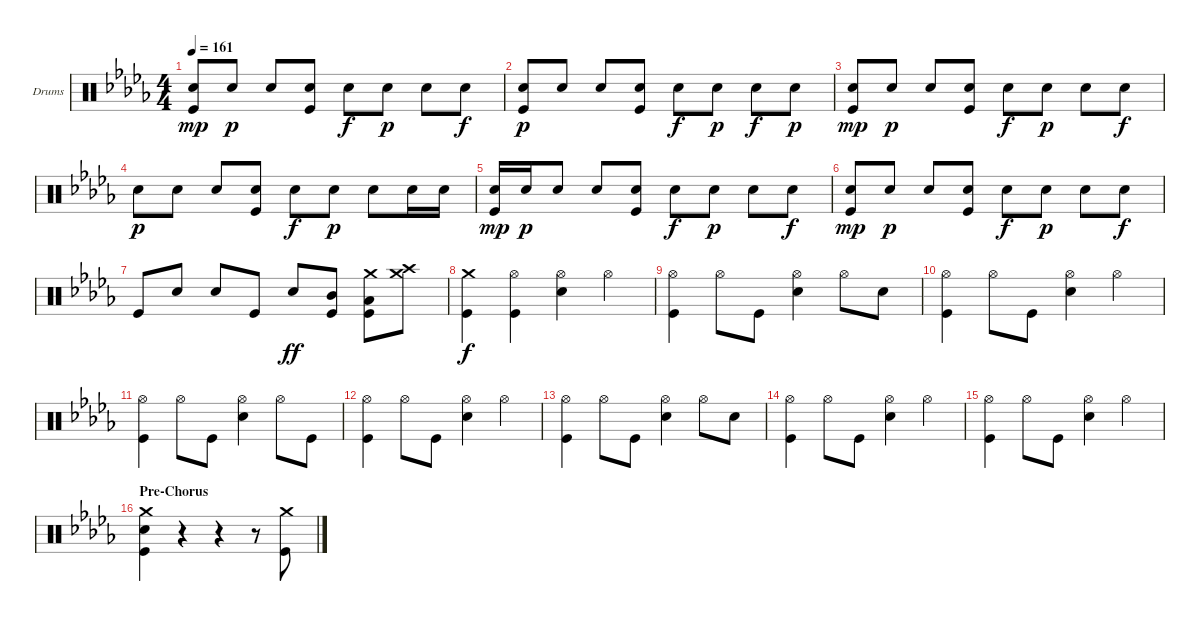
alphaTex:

\bracketExtendMode groupsimilarinstruments
\firstSystemTrackNameOrientation horizontal
\otherSystemsTrackNameOrientation horizontal
\track ("Drumkit" "Drums") {instrument percussion}
\staff {score}
\articulation defaults
\ts (4 4)
\tempo 161
\clef neutral
\ks db
("Snare (hit) 2" "Kick (hit)").8{dy mp} "Snare (hit) 2".8{dy p} "Snare (hit) 2".8 ("Snare (hit) 2" "Kick (hit)").8 "Snare (hit) 2".8{dy f} "Snare (hit) 2".8{dy p} "Snare (hit) 2".8 "Snare (hit) 2".8{dy f} |
("Snare (hit) 2" "Kick (hit)").8{dy p} "Snare (hit) 2".8 "Snare (hit) 2".8 ("Snare (hit) 2" "Kick (hit)").8 "Snare (hit) 2".8{dy f} "Snare (hit) 2".8{dy p} "Snare (hit) 2".8{dy f} "Snare (hit) 2".8{dy p} |
("Snare (hit) 2" "Kick (hit)").8{dy mp} "Snare (hit) 2".8{dy p} "Snare (hit) 2".8 ("Snare (hit) 2" "Kick (hit)").8 "Snare (hit) 2".8{dy f} "Snare (hit) 2".8{dy p} "Snare (hit) 2".8 "Snare (hit) 2".8{dy f} |
"Snare (hit) 2".8{dy p} "Snare (hit) 2".8 "Snare (hit) 2".8 ("Snare (hit) 2" "Kick (hit)").8 "Snare (hit) 2".8{dy f} "Snare (hit) 2".8{dy p} "Snare (hit) 2".8 "Snare (hit) 2".16 "Snare (hit) 2".16 |
("Snare (hit) 2" "Kick (hit)").16{dy mp} "Snare (hit) 2".16{dy p} "Snare (hit) 2".8 "Snare (hit) 2".8 ("Snare (hit) 2" "Kick (hit)").8 "Snare (hit) 2".8{dy f} "Snare (hit) 2".8{dy p} "Snare (hit) 2".8 "Snare (hit) 2".8{dy f} |
("Snare (hit) 2" "Kick (hit)").8{dy mp} "Snare (hit) 2".8{dy p} "Snare (hit) 2".8 ("Snare (hit) 2" "Kick (hit)").8 "Snare (hit) 2".8{dy f} "Snare (hit) 2".8{dy p} "Snare (hit) 2".8 "Snare (hit) 2".8{dy f} |
"Kick (hit)".8 "Snare (hit) 2".8 "Snare (hit) 2".8 "Kick (hit)".8 "Snare (hit) 2".8{dy ff} ("Kick (hit)" "Mid Tom (hit)").8 ("Kick (hit)" "Crash medium (hit)" "Low Tom (hit)").8 ("Crash high (hit)" "Crash medium (hit)").8 |
("Crash medium (hit)" "Kick (hit)").4{dy f} ("Hi-Hat (open)" "Kick (hit)").4 ("Hi-Hat (open)" "Snare (hit) 2").4 "Hi-Hat (open)".4 |
("Hi-Hat (open)" "Kick (hit)").4 "Hi-Hat (open)".8 "Kick (hit)".8 ("Hi-Hat (open)" "Snare (hit) 2").4 "Hi-Hat (open)".8 "Snare (hit) 2".8 |
("Hi-Hat (open)" "Kick (hit)").4 "Hi-Hat (open)".8 "Kick (hit)".8 ("Hi-Hat (open)" "Snare (hit) 2").4 "Hi-Hat (open)".4 |
("Hi-Hat (open)" "Kick (hit)").4 "Hi-Hat (open)".8 "Kick (hit)".8 ("Hi-Hat (open)" "Snare (hit) 2").4 "Hi-Hat (open)".8 "Kick (hit)".8 |
("Hi-Hat (open)" "Kick (hit)").4 "Hi-Hat (open)".8 "Kick (hit)".8 ("Hi-Hat (open)" "Snare (hit) 2").4 "Hi-Hat (open)".4 |
("Hi-Hat (open)" "Kick (hit)").4 "Hi-Hat (open)".8 "Kick (hit)".8 ("Hi-Hat (open)" "Snare (hit) 2").4 "Hi-Hat (open)".8 "Snare (hit) 2".8 |
("Hi-Hat (open)" "Kick (hit)").4 "Hi-Hat (open)".8 "Kick (hit)".8 ("Hi-Hat (open)" "Snare (hit) 2").4 "Hi-Hat (open)".4 |
("Hi-Hat (open)" "Kick (hit)").4 "Hi-Hat (open)".8 "Kick (hit)".8 ("Hi-Hat (open)" "Snare (hit) 2").4 "Hi-Hat (open)".4 |
\section ("" "Pre-Chorus")
("Kick (hit)" "Crash medium (hit)" "Snare (hit) 2").4 r.4 r.4 r.8 ("Crash medium (hit)" "Kick (hit)").8
